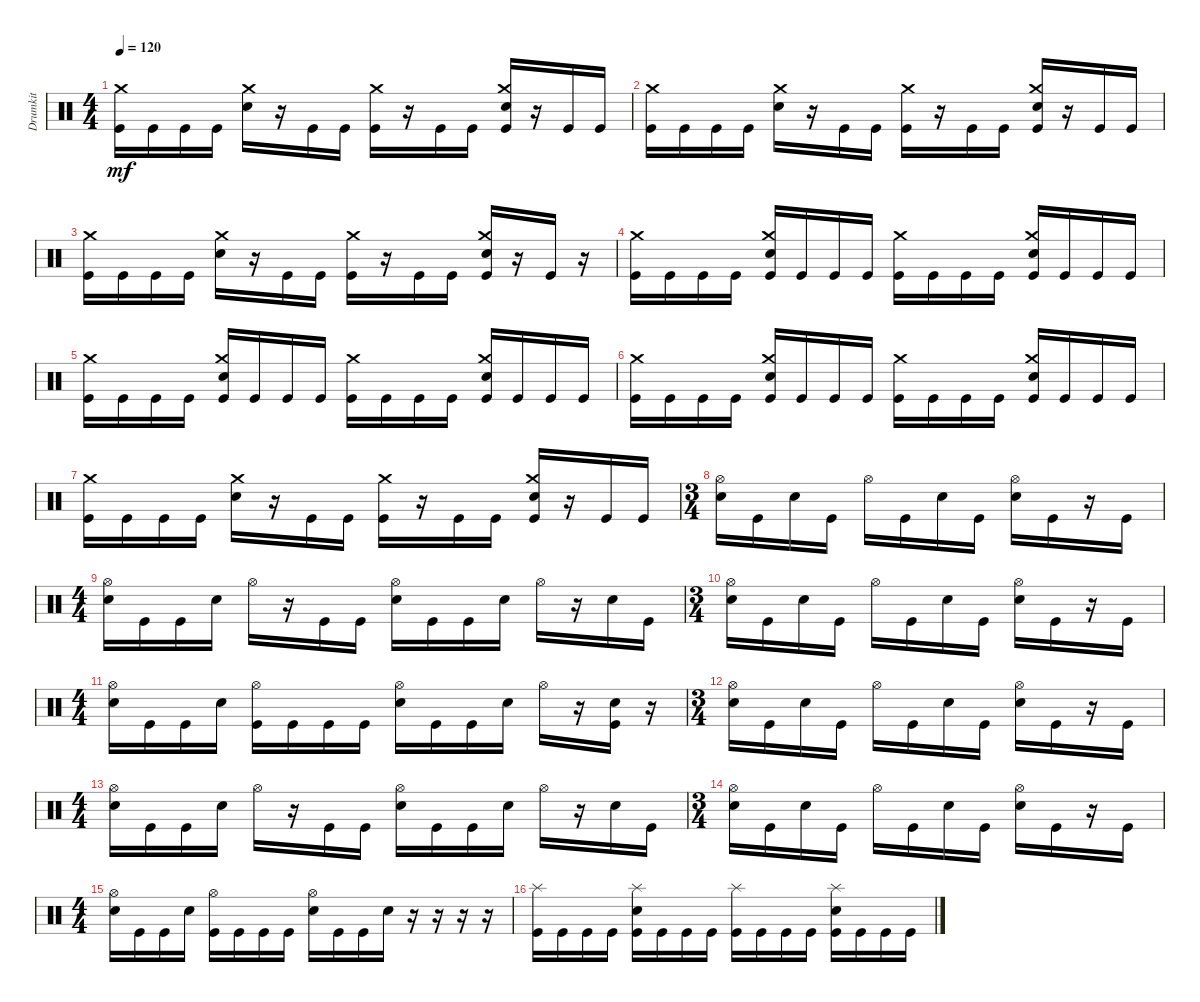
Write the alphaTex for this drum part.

\track ("Drumkit" "Drumkit") {instrument percussion}
\staff {score}
\articulation defaults
\ts (4 4)
\tempo 120
\clef neutral
\ks c
("Kick (hit)" "Crash medium (hit)").16{dy mf} "Kick (hit)".16 "Kick (hit)".16 "Kick (hit)".16 ("Snare (hit) 2" "Crash medium (hit)").16 r.16 "Kick (hit)".16 "Kick (hit)".16 ("Crash medium (hit)" "Kick (hit)").16 r.16 "Kick (hit)".16 "Kick (hit)".16 ("Crash medium (hit)" "Kick (hit)" "Snare (hit) 2").16 r.16 "Kick (hit)".16 "Kick (hit)".16 |
("Kick (hit)" "Crash medium (hit)").16 "Kick (hit)".16 "Kick (hit)".16 "Kick (hit)".16 ("Snare (hit) 2" "Crash medium (hit)").16 r.16 "Kick (hit)".16 "Kick (hit)".16 ("Crash medium (hit)" "Kick (hit)").16 r.16 "Kick (hit)".16 "Kick (hit)".16 ("Crash medium (hit)" "Kick (hit)" "Snare (hit) 2").16 r.16 "Kick (hit)".16 "Kick (hit)".16 |
("Kick (hit)" "Crash medium (hit)").16 "Kick (hit)".16 "Kick (hit)".16 "Kick (hit)".16 ("Snare (hit) 2" "Crash medium (hit)").16 r.16 "Kick (hit)".16 "Kick (hit)".16 ("Crash medium (hit)" "Kick (hit)").16 r.16 "Kick (hit)".16 "Kick (hit)".16 ("Crash medium (hit)" "Kick (hit)" "Snare (hit) 2").16 r.16 "Kick (hit)".16 r.16 |
("Kick (hit)" "Crash medium (hit)").16 "Kick (hit)".16 "Kick (hit)".16 "Kick (hit)".16 ("Snare (hit) 2" "Crash medium (hit)" "Kick (hit)").16 "Kick (hit)".16 "Kick (hit)".16 "Kick (hit)".16 ("Crash medium (hit)" "Kick (hit)").16 "Kick (hit)".16 "Kick (hit)".16 "Kick (hit)".16 ("Crash medium (hit)" "Kick (hit)" "Snare (hit) 2").16 "Kick (hit)".16 "Kick (hit)".16 "Kick (hit)".16 |
("Kick (hit)" "Crash medium (hit)").16 "Kick (hit)".16 "Kick (hit)".16 "Kick (hit)".16 ("Snare (hit) 2" "Crash medium (hit)" "Kick (hit)").16 "Kick (hit)".16 "Kick (hit)".16 "Kick (hit)".16 ("Crash medium (hit)" "Kick (hit)").16 "Kick (hit)".16 "Kick (hit)".16 "Kick (hit)".16 ("Crash medium (hit)" "Kick (hit)" "Snare (hit) 2").16 "Kick (hit)".16 "Kick (hit)".16 "Kick (hit)".16 |
("Kick (hit)" "Crash medium (hit)").16 "Kick (hit)".16 "Kick (hit)".16 "Kick (hit)".16 ("Snare (hit) 2" "Crash medium (hit)" "Kick (hit)").16 "Kick (hit)".16 "Kick (hit)".16 "Kick (hit)".16 ("Crash medium (hit)" "Kick (hit)").16 "Kick (hit)".16 "Kick (hit)".16 "Kick (hit)".16 ("Crash medium (hit)" "Kick (hit)" "Snare (hit) 2").16 "Kick (hit)".16 "Kick (hit)".16 "Kick (hit)".16 |
("Kick (hit)" "Crash medium (hit)").16 "Kick (hit)".16 "Kick (hit)".16 "Kick (hit)".16 ("Snare (hit) 2" "Crash medium (hit)").16 r.16 "Kick (hit)".16 "Kick (hit)".16 ("Crash medium (hit)" "Kick (hit)").16 r.16 "Kick (hit)".16 "Kick (hit)".16 ("Crash medium (hit)" "Kick (hit)" "Snare (hit) 2").16 r.16 "Kick (hit)".16 "Kick (hit)".16 |
\ts (3 4)
("Snare (hit) 2" "Hi-Hat (open)").16 "Kick (hit)".16 "Snare (hit) 2".16 "Kick (hit)".16 "Hi-Hat (open)".16 "Kick (hit)".16 "Snare (hit) 2".16 "Kick (hit)".16 ("Snare (hit) 2" "Hi-Hat (open)").16 "Kick (hit)".16 r.16 "Kick (hit)".16 |
\ts (4 4)
("Snare (hit) 2" "Hi-Hat (open)").16 "Kick (hit)".16 "Kick (hit)".16 "Snare (hit) 2".16 "Hi-Hat (open)".16 r.16 "Kick (hit)".16 "Kick (hit)".16 ("Snare (hit) 2" "Hi-Hat (open)").16 "Kick (hit)".16 "Kick (hit)".16 "Snare (hit) 2".16 "Hi-Hat (open)".16 r.16 "Snare (hit) 2".16 "Kick (hit)".16 |
\ts (3 4)
("Snare (hit) 2" "Hi-Hat (open)").16 "Kick (hit)".16 "Snare (hit) 2".16 "Kick (hit)".16 "Hi-Hat (open)".16 "Kick (hit)".16 "Snare (hit) 2".16 "Kick (hit)".16 ("Snare (hit) 2" "Hi-Hat (open)").16 "Kick (hit)".16 r.16 "Kick (hit)".16 |
\ts (4 4)
("Snare (hit) 2" "Hi-Hat (open)").16 "Kick (hit)".16 "Kick (hit)".16 "Snare (hit) 2".16 ("Hi-Hat (open)" "Kick (hit)").16 "Kick (hit)".16 "Kick (hit)".16 "Kick (hit)".16 ("Snare (hit) 2" "Hi-Hat (open)").16 "Kick (hit)".16 "Kick (hit)".16 "Snare (hit) 2".16 "Hi-Hat (open)".16 r.16 ("Kick (hit)" "Snare (hit) 2").16 r.16 |
\ts (3 4)
("Snare (hit) 2" "Hi-Hat (open)").16 "Kick (hit)".16 "Snare (hit) 2".16 "Kick (hit)".16 "Hi-Hat (open)".16 "Kick (hit)".16 "Snare (hit) 2".16 "Kick (hit)".16 ("Snare (hit) 2" "Hi-Hat (open)").16 "Kick (hit)".16 r.16 "Kick (hit)".16 |
\ts (4 4)
("Snare (hit) 2" "Hi-Hat (open)").16 "Kick (hit)".16 "Kick (hit)".16 "Snare (hit) 2".16 "Hi-Hat (open)".16 r.16 "Kick (hit)".16 "Kick (hit)".16 ("Snare (hit) 2" "Hi-Hat (open)").16 "Kick (hit)".16 "Kick (hit)".16 "Snare (hit) 2".16 "Hi-Hat (open)".16 r.16 "Snare (hit) 2".16 "Kick (hit)".16 |
\ts (3 4)
("Snare (hit) 2" "Hi-Hat (open)").16 "Kick (hit)".16 "Snare (hit) 2".16 "Kick (hit)".16 "Hi-Hat (open)".16 "Kick (hit)".16 "Snare (hit) 2".16 "Kick (hit)".16 ("Snare (hit) 2" "Hi-Hat (open)").16 "Kick (hit)".16 r.16 "Kick (hit)".16 |
\ts (4 4)
("Snare (hit) 2" "Hi-Hat (open)").16 "Kick (hit)".16 "Kick (hit)".16 "Snare (hit) 2".16 ("Hi-Hat (open)" "Kick (hit)").16 "Kick (hit)".16 "Kick (hit)".16 "Kick (hit)".16 ("Snare (hit) 2" "Hi-Hat (open)").16 "Kick (hit)".16 "Kick (hit)".16 "Snare (hit) 2".16 r.16 r.16 r.16 r.16 |
("Kick (hit)" "Splash (hit)").16 "Kick (hit)".16 "Kick (hit)".16 "Kick (hit)".16 ("Kick (hit)" "Splash (hit)" "Snare (hit) 2").16 "Kick (hit)".16 "Kick (hit)".16 "Kick (hit)".16 ("Kick (hit)" "Splash (hit)").16 "Kick (hit)".16 "Kick (hit)".16 "Kick (hit)".16 ("Kick (hit)" "Splash (hit)" "Snare (hit) 2").16 "Kick (hit)".16 "Kick (hit)".16 "Kick (hit)".16
